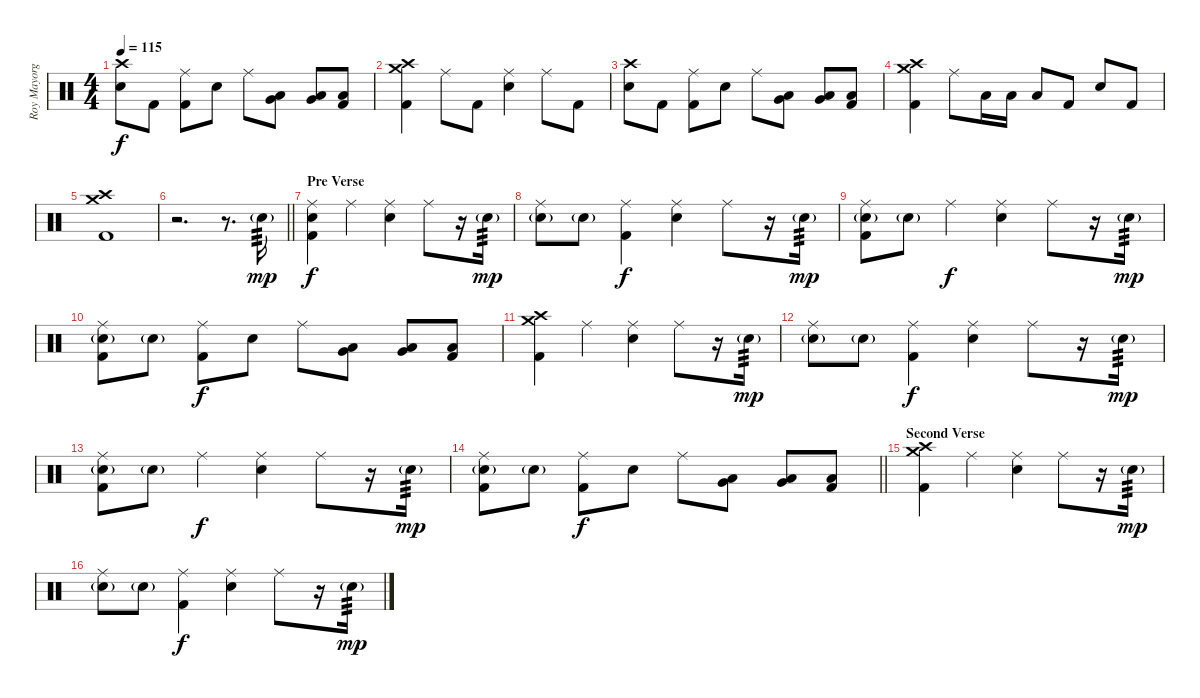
\track ("Roy Mayorga" "Roy Mayorg") {instrument percussion}
\staff {score}
\articulation defaults
\ts (4 4)
\tempo 115
\clef neutral
\ks c
("Crash high (hit)" "Electric Snare (hit)").8{dy f} "Kick (hit) 2".8 ("Ride (middle)" "Kick (hit) 2").8 "Electric Snare (hit)".8 "Ride (middle)".8 ("Low Tom (hit)" "Very Low Tom (hit)").8 ("Very Low Tom (hit)" "Low Floor Tom (hit)").8 ("Low Floor Tom (hit)" "Kick (hit) 2").8 |
("Crash high (hit)" "Crash medium (hit)" "Kick (hit) 2").4 "Ride (middle)".8 "Kick (hit) 2".8 ("Ride (middle)" "Electric Snare (hit)").4 "Ride (middle)".8 "Kick (hit) 2".8 |
("Crash high (hit)" "Electric Snare (hit)").8 "Kick (hit) 2".8 ("Ride (middle)" "Kick (hit) 2").8 "Electric Snare (hit)".8 "Ride (middle)".8 ("Low Tom (hit)" "Very Low Tom (hit)").8 ("Very Low Tom (hit)" "Low Floor Tom (hit)").8 ("Low Floor Tom (hit)" "Kick (hit) 2").8 |
("Crash high (hit)" "Crash medium (hit)" "Kick (hit) 2").4 "Ride (middle)".8 "Low Tom (hit)".16 "Low Tom (hit)".16 "Low Tom (hit)".8 "Kick (hit) 2".8 "Electric Snare (hit)".8 "Kick (hit) 2".8 |
("Crash high (hit)" "Crash medium (hit)" "Kick (hit) 2").1 |
\barLineRight lightlight
r.2{d} r.8{d} "Electric Snare (hit)"{g}.16{tp 3 dy mp} |
\section ("" "Pre Verse")
("Ride (middle)" "Electric Snare (hit)" "Kick (hit) 2").4{dy f} "Ride (middle)".4 ("Ride (middle)" "Electric Snare (hit)").4 "Ride (middle)".8 r.16 "Electric Snare (hit)"{g}.16{tp 3 dy mp} |
("Ride (middle)" "Electric Snare (hit)"{g}).8 "Electric Snare (hit)"{g}.8 ("Ride (middle)" "Kick (hit) 2").4{dy f} ("Ride (middle)" "Electric Snare (hit)").4 "Ride (middle)".8 r.16 "Electric Snare (hit)"{g}.16{tp 3 dy mp} |
("Ride (middle)" "Electric Snare (hit)"{g} "Kick (hit) 2").8 "Electric Snare (hit)"{g}.8 "Ride (middle)".4{dy f} ("Ride (middle)" "Electric Snare (hit)").4 "Ride (middle)".8 r.16 "Electric Snare (hit)"{g}.16{tp 3 dy mp} |
("Ride (middle)" "Electric Snare (hit)"{g} "Kick (hit) 2").8 "Electric Snare (hit)"{g}.8 ("Ride (middle)" "Kick (hit) 2").8{dy f} "Electric Snare (hit)".8 "Ride (middle)".8 ("Low Tom (hit)" "Very Low Tom (hit)").8 ("Very Low Tom (hit)" "Low Floor Tom (hit)").8 ("Low Floor Tom (hit)" "Kick (hit) 2").8 |
("Crash high (hit)" "Crash medium (hit)" "Kick (hit) 2").4 "Ride (middle)".4 ("Ride (middle)" "Electric Snare (hit)").4 "Ride (middle)".8 r.16 "Electric Snare (hit)"{g}.16{tp 3 dy mp} |
("Ride (middle)" "Electric Snare (hit)"{g}).8 "Electric Snare (hit)"{g}.8 ("Ride (middle)" "Kick (hit) 2").4{dy f} ("Ride (middle)" "Electric Snare (hit)").4 "Ride (middle)".8 r.16 "Electric Snare (hit)"{g}.16{tp 3 dy mp} |
("Ride (middle)" "Electric Snare (hit)"{g} "Kick (hit) 2").8 "Electric Snare (hit)"{g}.8 "Ride (middle)".4{dy f} ("Ride (middle)" "Electric Snare (hit)").4 "Ride (middle)".8 r.16 "Electric Snare (hit)"{g}.16{tp 3 dy mp} |
\barLineRight lightlight
("Ride (middle)" "Electric Snare (hit)"{g} "Kick (hit) 2").8 "Electric Snare (hit)"{g}.8 ("Ride (middle)" "Kick (hit) 2").8{dy f} "Electric Snare (hit)".8 "Ride (middle)".8 ("Low Tom (hit)" "Very Low Tom (hit)").8 ("Very Low Tom (hit)" "Low Floor Tom (hit)").8 ("Low Floor Tom (hit)" "Kick (hit) 2").8 |
\section ("" "Second Verse")
("Crash high (hit)" "Crash medium (hit)" "Kick (hit) 2").4 "Ride (middle)".4 ("Ride (middle)" "Electric Snare (hit)").4 "Ride (middle)".8 r.16 "Electric Snare (hit)"{g}.16{tp 3 dy mp} |
("Ride (middle)" "Electric Snare (hit)"{g}).8 "Electric Snare (hit)"{g}.8 ("Ride (middle)" "Kick (hit) 2").4{dy f} ("Ride (middle)" "Electric Snare (hit)").4 "Ride (middle)".8 r.16 "Electric Snare (hit)"{g}.16{tp 3 dy mp}
